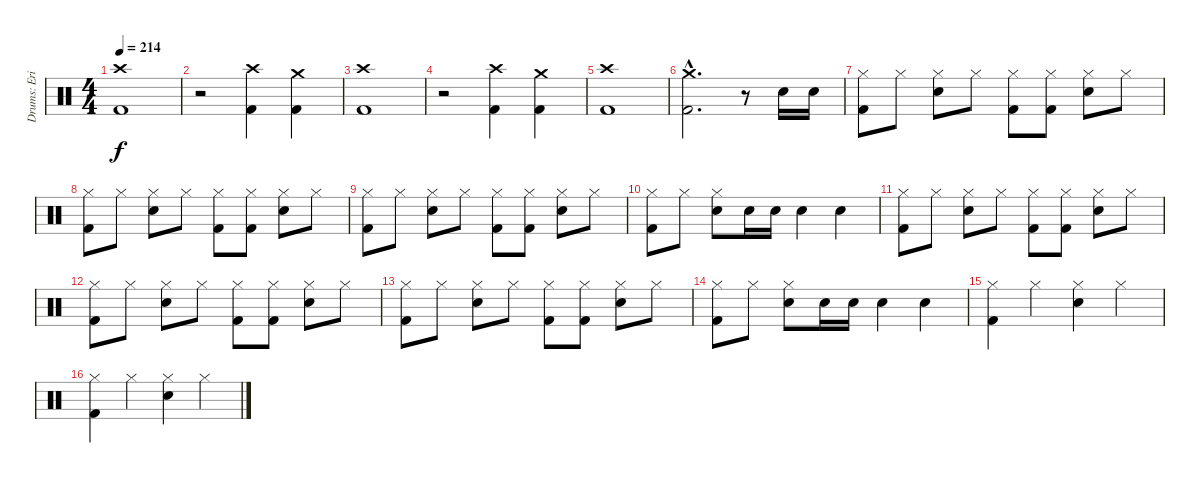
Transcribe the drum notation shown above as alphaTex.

\track ("Drums: Erik Sandin" "Drums: Eri") {instrument percussion}
\staff {score}
\articulation defaults
\ts (4 4)
\tempo 214
\clef neutral
\ks c
("Crash high (hit)" "Kick (hit) 2").1{dy f} |
r.2 ("Crash high (hit)" "Kick (hit) 2").4 ("Crash medium (hit)" "Kick (hit) 2").4 |
("Crash high (hit)" "Kick (hit) 2").1 |
r.2 ("Crash high (hit)" "Kick (hit) 2").4 ("Crash medium (hit)" "Kick (hit) 2").4 |
("Crash high (hit)" "Kick (hit) 2").1 |
("Crash medium (hit)"{hac} "Kick (hit) 2"{hac}).2{d} r.8 "Electric Snare (hit)".16 "Electric Snare (hit)".16 |
("Hi-Hat (closed)" "Kick (hit) 2").8 "Hi-Hat (closed)".8 ("Hi-Hat (closed)" "Electric Snare (hit)").8 "Hi-Hat (closed)".8 ("Hi-Hat (closed)" "Kick (hit) 2").8 ("Hi-Hat (closed)" "Kick (hit) 2").8 ("Hi-Hat (closed)" "Electric Snare (hit)").8 "Hi-Hat (closed)".8 |
("Hi-Hat (closed)" "Kick (hit) 2").8 "Hi-Hat (closed)".8 ("Hi-Hat (closed)" "Electric Snare (hit)").8 "Hi-Hat (closed)".8 ("Hi-Hat (closed)" "Kick (hit) 2").8 ("Hi-Hat (closed)" "Kick (hit) 2").8 ("Hi-Hat (closed)" "Electric Snare (hit)").8 "Hi-Hat (closed)".8 |
("Hi-Hat (closed)" "Kick (hit) 2").8 "Hi-Hat (closed)".8 ("Hi-Hat (closed)" "Electric Snare (hit)").8 "Hi-Hat (closed)".8 ("Hi-Hat (closed)" "Kick (hit) 2").8 ("Hi-Hat (closed)" "Kick (hit) 2").8 ("Hi-Hat (closed)" "Electric Snare (hit)").8 "Hi-Hat (closed)".8 |
("Hi-Hat (closed)" "Kick (hit) 2").8 "Hi-Hat (closed)".8 ("Hi-Hat (closed)" "Electric Snare (hit)").8 "Electric Snare (hit)".16 "Electric Snare (hit)".16 "Electric Snare (hit)".4 "Electric Snare (hit)".4 |
("Hi-Hat (closed)" "Kick (hit) 2").8 "Hi-Hat (closed)".8 ("Hi-Hat (closed)" "Electric Snare (hit)").8 "Hi-Hat (closed)".8 ("Hi-Hat (closed)" "Kick (hit) 2").8 ("Hi-Hat (closed)" "Kick (hit) 2").8 ("Hi-Hat (closed)" "Electric Snare (hit)").8 "Hi-Hat (closed)".8 |
("Hi-Hat (closed)" "Kick (hit) 2").8 "Hi-Hat (closed)".8 ("Hi-Hat (closed)" "Electric Snare (hit)").8 "Hi-Hat (closed)".8 ("Hi-Hat (closed)" "Kick (hit) 2").8 ("Hi-Hat (closed)" "Kick (hit) 2").8 ("Hi-Hat (closed)" "Electric Snare (hit)").8 "Hi-Hat (closed)".8 |
("Hi-Hat (closed)" "Kick (hit) 2").8 "Hi-Hat (closed)".8 ("Hi-Hat (closed)" "Electric Snare (hit)").8 "Hi-Hat (closed)".8 ("Hi-Hat (closed)" "Kick (hit) 2").8 ("Hi-Hat (closed)" "Kick (hit) 2").8 ("Hi-Hat (closed)" "Electric Snare (hit)").8 "Hi-Hat (closed)".8 |
("Hi-Hat (closed)" "Kick (hit) 2").8 "Hi-Hat (closed)".8 ("Hi-Hat (closed)" "Electric Snare (hit)").8 "Electric Snare (hit)".16 "Electric Snare (hit)".16 "Electric Snare (hit)".4 "Electric Snare (hit)".4 |
("Hi-Hat (closed)" "Kick (hit) 2").4 "Hi-Hat (closed)".4 ("Hi-Hat (closed)" "Electric Snare (hit)").4 "Hi-Hat (closed)".4 |
("Hi-Hat (closed)" "Kick (hit) 2").4 "Hi-Hat (closed)".4 ("Hi-Hat (closed)" "Electric Snare (hit)").4 "Hi-Hat (closed)".4
